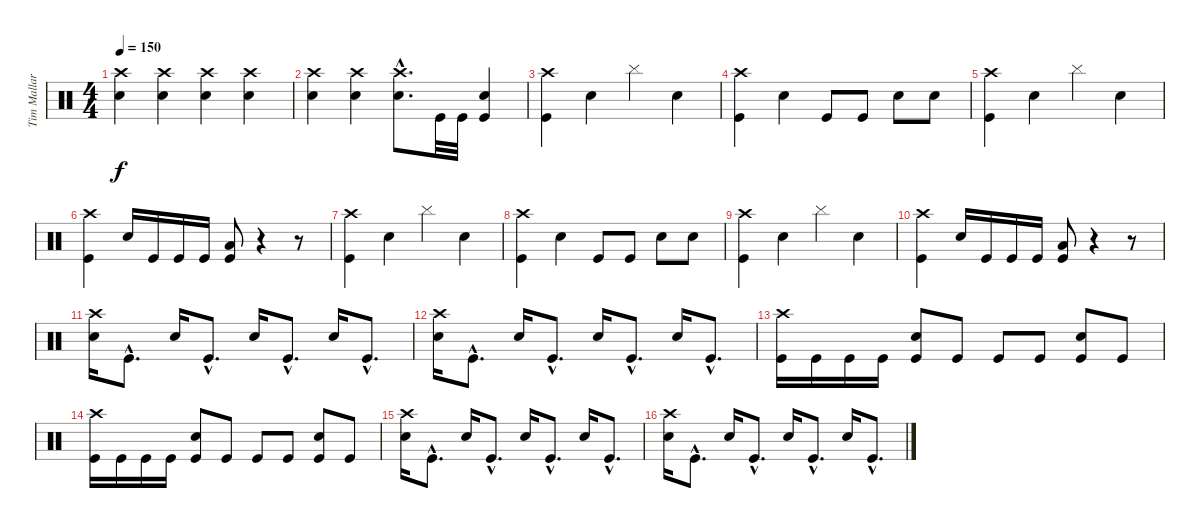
\track ("Tim Mallare-Drums" "Tim Mallar") {instrument percussion}
\staff {score}
\articulation defaults
\ts (4 4)
\tempo 150
\clef neutral
\ks c
("Crash high (hit)" "Electric Snare (hit)").4{dy f} ("Crash high (hit)" "Electric Snare (hit)").4 ("Crash high (hit)" "Electric Snare (hit)").4 ("Crash high (hit)" "Electric Snare (hit)").4 |
("Crash high (hit)" "Electric Snare (hit)").4 ("Crash high (hit)" "Electric Snare (hit)").4 ("Crash high (hit)"{hac} "Electric Snare (hit)"{hac}).8{d} "Kick (hit)".32 "Kick (hit)".32 ("Electric Snare (hit)" "Kick (hit)").4 |
("Crash high (hit)" "Kick (hit)").4 "Electric Snare (hit)".4 "Cymbal (hit)".4 "Electric Snare (hit)".4 |
("Crash high (hit)" "Kick (hit)").4 "Electric Snare (hit)".4 "Kick (hit)".8 "Kick (hit)".8 "Electric Snare (hit)".8 "Electric Snare (hit)".8 |
("Crash high (hit)" "Kick (hit)").4 "Electric Snare (hit)".4 "Cymbal (hit)".4 "Electric Snare (hit)".4 |
("Crash high (hit)" "Kick (hit)").4 "Electric Snare (hit)".16 "Kick (hit)".16 "Kick (hit)".16 "Kick (hit)".16 ("Low Tom (hit)" "Kick (hit)").8 r.4 r.8 |
("Crash high (hit)" "Kick (hit)").4 "Electric Snare (hit)".4 "Cymbal (hit)".4 "Electric Snare (hit)".4 |
("Crash high (hit)" "Kick (hit)").4 "Electric Snare (hit)".4 "Kick (hit)".8 "Kick (hit)".8 "Electric Snare (hit)".8 "Electric Snare (hit)".8 |
("Crash high (hit)" "Kick (hit)").4 "Electric Snare (hit)".4 "Cymbal (hit)".4 "Electric Snare (hit)".4 |
("Crash high (hit)" "Kick (hit)").4 "Electric Snare (hit)".16 "Kick (hit)".16 "Kick (hit)".16 "Kick (hit)".16 ("Low Tom (hit)" "Kick (hit)").8 r.4 r.8 |
("Crash high (hit)" "Electric Snare (hit)").16 "Kick (hit)"{hac}.8{d} "Electric Snare (hit)".16 "Kick (hit)"{hac}.8{d} "Electric Snare (hit)".16 "Kick (hit)"{hac}.8{d} "Electric Snare (hit)".16 "Kick (hit)"{hac}.8{d} |
("Crash high (hit)" "Electric Snare (hit)").16 "Kick (hit)"{hac}.8{d} "Electric Snare (hit)".16 "Kick (hit)"{hac}.8{d} "Electric Snare (hit)".16 "Kick (hit)"{hac}.8{d} "Electric Snare (hit)".16 "Kick (hit)"{hac}.8{d} |
("Crash high (hit)" "Kick (hit)").16 "Kick (hit)".16 "Kick (hit)".16 "Kick (hit)".16 ("Electric Snare (hit)" "Kick (hit)").8 "Kick (hit)".8 "Kick (hit)".8 "Kick (hit)".8 ("Electric Snare (hit)" "Kick (hit)").8 "Kick (hit)".8 |
("Crash high (hit)" "Kick (hit)").16 "Kick (hit)".16 "Kick (hit)".16 "Kick (hit)".16 ("Electric Snare (hit)" "Kick (hit)").8 "Kick (hit)".8 "Kick (hit)".8 "Kick (hit)".8 ("Electric Snare (hit)" "Kick (hit)").8 "Kick (hit)".8 |
("Crash high (hit)" "Electric Snare (hit)").16 "Kick (hit)"{hac}.8{d} "Electric Snare (hit)".16 "Kick (hit)"{hac}.8{d} "Electric Snare (hit)".16 "Kick (hit)"{hac}.8{d} "Electric Snare (hit)".16 "Kick (hit)"{hac}.8{d} |
("Crash high (hit)" "Electric Snare (hit)").16 "Kick (hit)"{hac}.8{d} "Electric Snare (hit)".16 "Kick (hit)"{hac}.8{d} "Electric Snare (hit)".16 "Kick (hit)"{hac}.8{d} "Electric Snare (hit)".16 "Kick (hit)"{hac}.8{d}
